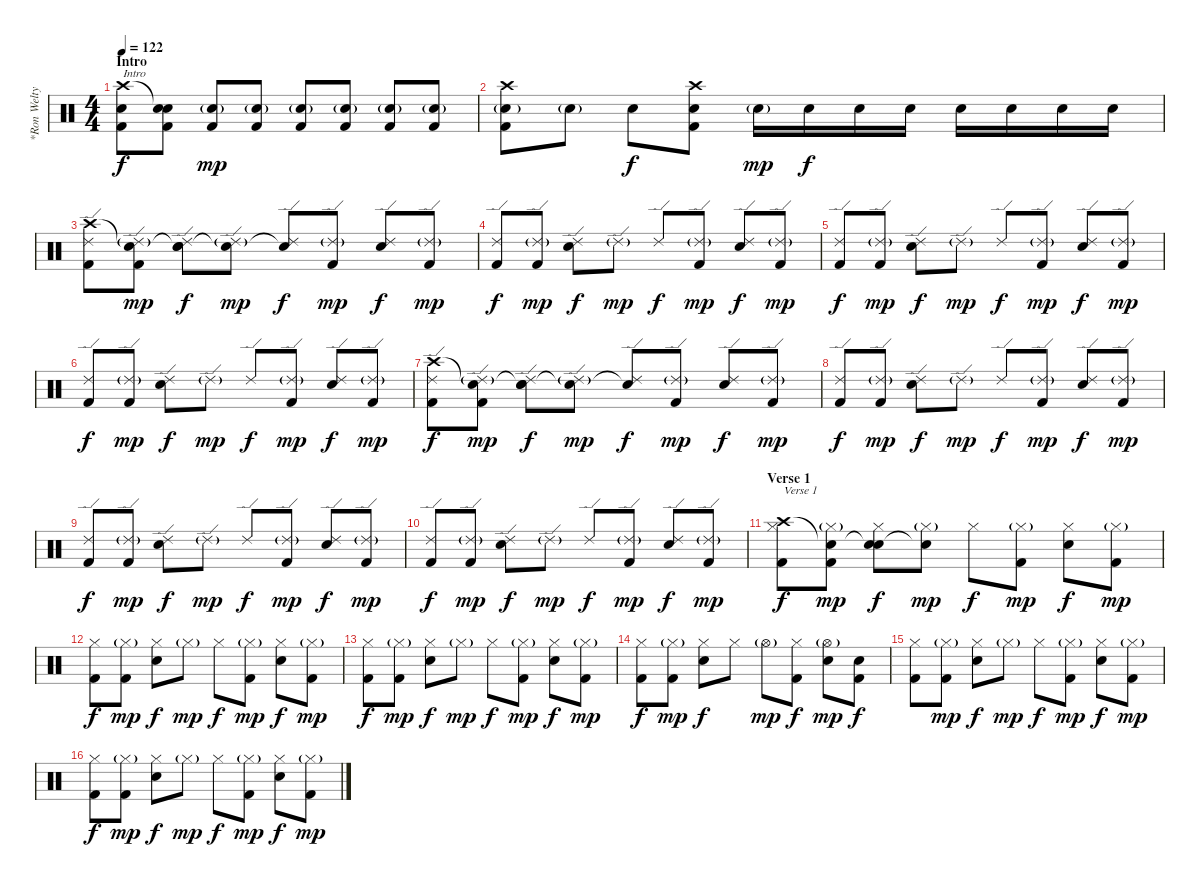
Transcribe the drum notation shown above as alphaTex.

\track ("*Ron Welty (Ex-drummer)" "*Ron Welty") {instrument percussion}
\staff {score}
\articulation defaults
\ts (4 4)
\section ("" "Intro")
\tempo 122
\clef neutral
\ks c
("Crash high (hit)" "Electric Snare (hit)" "Kick (hit) 2").8{txt "Intro" dy f} ("Snare (hit)"{t} "Electric Snare (hit)" "Kick (hit) 2").8 ("Electric Snare (hit)"{g} "Kick (hit) 2").8{dy mp} ("Electric Snare (hit)"{g} "Kick (hit) 2").8 ("Electric Snare (hit)"{g} "Kick (hit) 2").8 ("Electric Snare (hit)"{g} "Kick (hit) 2").8 ("Electric Snare (hit)"{g} "Kick (hit) 2").8 ("Electric Snare (hit)"{g} "Kick (hit) 2").8 |
("Crash high (hit)" "Electric Snare (hit)"{g} "Kick (hit) 2").8 "Electric Snare (hit)"{g}.8 "Electric Snare (hit)".8{dy f} ("Crash high (hit)" "Electric Snare (hit)" "Kick (hit) 2").8 "Electric Snare (hit)"{g}.16{dy mp} "Electric Snare (hit)".16{dy f} "Electric Snare (hit)".16 "Electric Snare (hit)".16 "Electric Snare (hit)".16 "Electric Snare (hit)".16 "Electric Snare (hit)".16 "Electric Snare (hit)".16 |
("Crash high (hit)" "Ride (edge) 2" "Kick (hit) 2").8 ("Snare (hit)"{t} "Ride (edge) 2"{g} "Kick (hit) 2").8{dy mp} ("Snare (hit)"{t} "Ride (edge) 2" "Electric Snare (hit)").8{dy f} ("Snare (hit)"{t} "Ride (edge) 2"{g}).8{dy mp} ("Snare (hit)"{t} "Ride (edge) 2").8{dy f} ("Ride (edge) 2"{g} "Kick (hit) 2").8{dy mp} ("Ride (edge) 2" "Electric Snare (hit)").8{dy f} ("Ride (edge) 2"{g} "Kick (hit) 2").8{dy mp} |
("Ride (edge) 2" "Kick (hit) 2").8{dy f} ("Ride (edge) 2"{g} "Kick (hit) 2").8{dy mp} ("Ride (edge) 2" "Electric Snare (hit)").8{dy f} "Ride (edge) 2"{g}.8{dy mp} "Ride (edge) 2".8{dy f} ("Ride (edge) 2"{g} "Kick (hit) 2").8{dy mp} ("Ride (edge) 2" "Electric Snare (hit)").8{dy f} ("Ride (edge) 2"{g} "Kick (hit) 2").8{dy mp} |
("Ride (edge) 2" "Kick (hit) 2").8{dy f} ("Ride (edge) 2"{g} "Kick (hit) 2").8{dy mp} ("Ride (edge) 2" "Electric Snare (hit)").8{dy f} "Ride (edge) 2"{g}.8{dy mp} "Ride (edge) 2".8{dy f} ("Ride (edge) 2"{g} "Kick (hit) 2").8{dy mp} ("Ride (edge) 2" "Electric Snare (hit)").8{dy f} ("Ride (edge) 2"{g} "Kick (hit) 2").8{dy mp} |
("Ride (edge) 2" "Kick (hit) 2").8{dy f} ("Ride (edge) 2"{g} "Kick (hit) 2").8{dy mp} ("Ride (edge) 2" "Electric Snare (hit)").8{dy f} "Ride (edge) 2"{g}.8{dy mp} "Ride (edge) 2".8{dy f} ("Ride (edge) 2"{g} "Kick (hit) 2").8{dy mp} ("Ride (edge) 2" "Electric Snare (hit)").8{dy f} ("Ride (edge) 2"{g} "Kick (hit) 2").8{dy mp} |
("Crash high (hit)" "Ride (edge) 2" "Kick (hit) 2").8{dy f} ("Snare (hit)"{t} "Ride (edge) 2"{g} "Kick (hit) 2").8{dy mp} ("Snare (hit)"{t} "Ride (edge) 2" "Electric Snare (hit)").8{dy f} ("Snare (hit)"{t} "Ride (edge) 2"{g}).8{dy mp} ("Snare (hit)"{t} "Ride (edge) 2").8{dy f} ("Ride (edge) 2"{g} "Kick (hit) 2").8{dy mp} ("Ride (edge) 2" "Electric Snare (hit)").8{dy f} ("Ride (edge) 2"{g} "Kick (hit) 2").8{dy mp} |
("Ride (edge) 2" "Kick (hit) 2").8{dy f} ("Ride (edge) 2"{g} "Kick (hit) 2").8{dy mp} ("Ride (edge) 2" "Electric Snare (hit)").8{dy f} "Ride (edge) 2"{g}.8{dy mp} "Ride (edge) 2".8{dy f} ("Ride (edge) 2"{g} "Kick (hit) 2").8{dy mp} ("Ride (edge) 2" "Electric Snare (hit)").8{dy f} ("Ride (edge) 2"{g} "Kick (hit) 2").8{dy mp} |
("Ride (edge) 2" "Kick (hit) 2").8{dy f} ("Ride (edge) 2"{g} "Kick (hit) 2").8{dy mp} ("Ride (edge) 2" "Electric Snare (hit)").8{dy f} "Ride (edge) 2"{g}.8{dy mp} "Ride (edge) 2".8{dy f} ("Ride (edge) 2"{g} "Kick (hit) 2").8{dy mp} ("Ride (edge) 2" "Electric Snare (hit)").8{dy f} ("Ride (edge) 2"{g} "Kick (hit) 2").8{dy mp} |
("Ride (edge) 2" "Kick (hit) 2").8{dy f} ("Ride (edge) 2"{g} "Kick (hit) 2").8{dy mp} ("Ride (edge) 2" "Electric Snare (hit)").8{dy f} "Ride (edge) 2"{g}.8{dy mp} "Ride (edge) 2".8{dy f} ("Ride (edge) 2"{g} "Kick (hit) 2").8{dy mp} ("Ride (edge) 2" "Electric Snare (hit)").8{dy f} ("Ride (edge) 2"{g} "Kick (hit) 2").8{dy mp} |
\section ("" "Verse 1")
("Crash high (hit)" "Hi-Hat (closed)" "Kick (hit) 2").8{txt "Verse 1" dy f balance 8} ("Snare (hit)"{t} "Hi-Hat (closed)"{g} "Kick (hit) 2").8{dy mp balance 8} ("Snare (hit)"{t} "Hi-Hat (closed)" "Electric Snare (hit)").8{dy f balance 8} ("Snare (hit)"{t} "Hi-Hat (closed)"{g}).8{dy mp balance 8} "Hi-Hat (closed)".8{dy f} ("Hi-Hat (closed)"{g} "Kick (hit) 2").8{dy mp balance 8} ("Hi-Hat (closed)" "Electric Snare (hit)").8{dy f} ("Hi-Hat (closed)"{g} "Kick (hit) 2").8{dy mp} |
("Hi-Hat (closed)" "Kick (hit) 2").8{dy f balance 8} ("Hi-Hat (closed)"{g} "Kick (hit) 2").8{dy mp} ("Hi-Hat (closed)" "Electric Snare (hit)").8{dy f} "Hi-Hat (closed)"{g}.8{dy mp} "Hi-Hat (closed)".8{dy f} ("Hi-Hat (closed)"{g} "Kick (hit) 2").8{dy mp} ("Hi-Hat (closed)" "Electric Snare (hit)").8{dy f} ("Hi-Hat (closed)"{g} "Kick (hit) 2").8{dy mp} |
("Hi-Hat (closed)" "Kick (hit) 2").8{dy f balance 8} ("Hi-Hat (closed)"{g} "Kick (hit) 2").8{dy mp} ("Hi-Hat (closed)" "Electric Snare (hit)").8{dy f} "Hi-Hat (closed)"{g}.8{dy mp} "Hi-Hat (closed)".8{dy f} ("Hi-Hat (closed)"{g} "Kick (hit) 2").8{dy mp} ("Hi-Hat (closed)" "Electric Snare (hit)").8{dy f} ("Hi-Hat (closed)"{g} "Kick (hit) 2").8{dy mp} |
("Hi-Hat (closed)" "Kick (hit) 2").8{dy f balance 8} ("Hi-Hat (closed)"{g} "Kick (hit) 2").8{dy mp} ("Hi-Hat (closed)" "Electric Snare (hit)").8{dy f} "Hi-Hat (closed)".8 "Hi-Hat (open)"{g}.8{dy mp} ("Hi-Hat (closed)" "Kick (hit) 2").8{dy f} ("Hi-Hat (open)"{g} "Electric Snare (hit)").8{dy mp} ("Snare (hit)" "Kick (hit) 2").8{dy f} |
("Hi-Hat (closed)" "Kick (hit) 2").8{balance 8} ("Hi-Hat (closed)"{g} "Kick (hit) 2").8{dy mp} ("Hi-Hat (closed)" "Electric Snare (hit)").8{dy f} "Hi-Hat (closed)"{g}.8{dy mp} "Hi-Hat (closed)".8{dy f} ("Hi-Hat (closed)"{g} "Kick (hit) 2").8{dy mp} ("Hi-Hat (closed)" "Electric Snare (hit)").8{dy f} ("Hi-Hat (closed)"{g} "Kick (hit) 2").8{dy mp} |
("Hi-Hat (closed)" "Kick (hit) 2").8{dy f balance 8} ("Hi-Hat (closed)"{g} "Kick (hit) 2").8{dy mp} ("Hi-Hat (closed)" "Electric Snare (hit)").8{dy f} "Hi-Hat (closed)"{g}.8{dy mp} "Hi-Hat (closed)".8{dy f} ("Hi-Hat (closed)"{g} "Kick (hit) 2").8{dy mp} ("Hi-Hat (closed)" "Electric Snare (hit)").8{dy f} ("Hi-Hat (closed)"{g} "Kick (hit) 2").8{dy mp}
